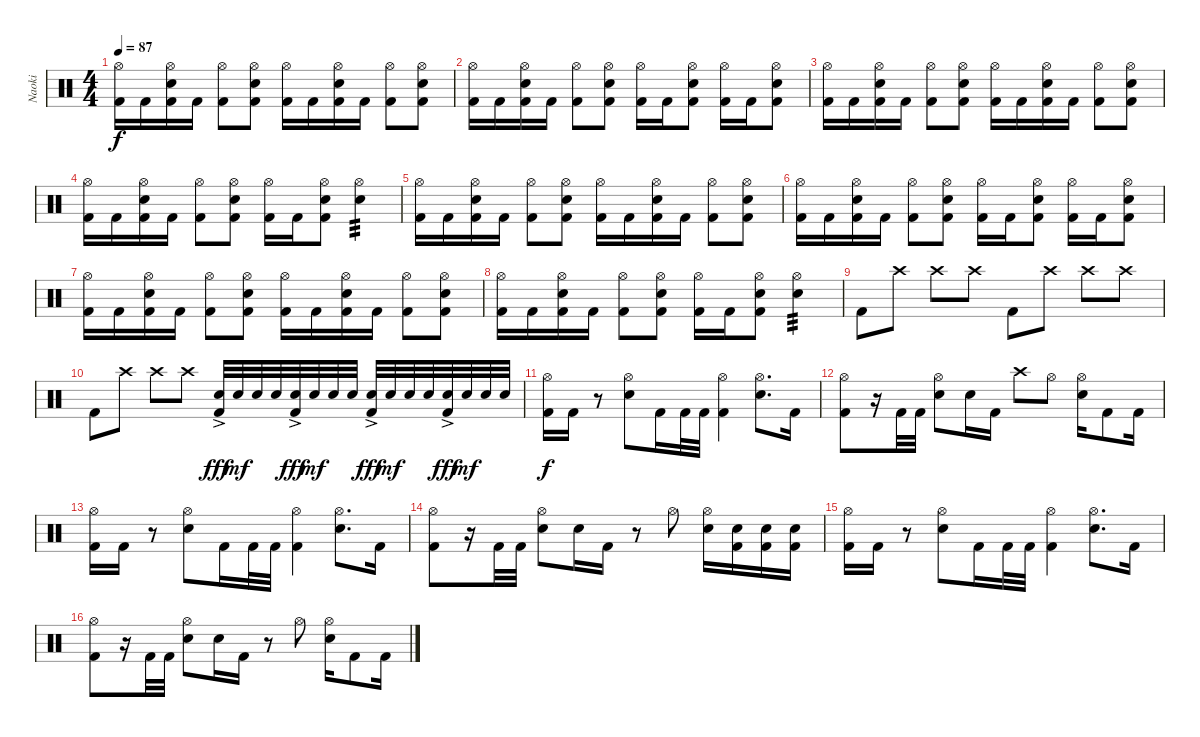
\track ("Naoki" "Naoki") {instrument percussion}
\staff {score}
\articulation defaults
\ts (4 4)
\tempo 87
\clef neutral
\ks c
("Hi-Hat (open)" "Kick (hit) 2").16{dy f} "Kick (hit) 2".16 ("Hi-Hat (open)" "Electric Snare (hit)" "Kick (hit) 2").16 "Kick (hit) 2".16 ("Hi-Hat (open)" "Kick (hit) 2").8 ("Hi-Hat (open)" "Electric Snare (hit)" "Kick (hit) 2").8 ("Hi-Hat (open)" "Kick (hit) 2").16 "Kick (hit) 2".16 ("Hi-Hat (open)" "Electric Snare (hit)" "Kick (hit) 2").16 "Kick (hit) 2".16 ("Hi-Hat (open)" "Kick (hit) 2").8 ("Hi-Hat (open)" "Electric Snare (hit)" "Kick (hit) 2").8 |
("Hi-Hat (open)" "Kick (hit) 2").16 "Kick (hit) 2".16 ("Hi-Hat (open)" "Electric Snare (hit)" "Kick (hit) 2").16 "Kick (hit) 2".16 ("Hi-Hat (open)" "Kick (hit) 2").8 ("Hi-Hat (open)" "Electric Snare (hit)" "Kick (hit) 2").8 ("Hi-Hat (open)" "Kick (hit) 2").16 "Kick (hit) 2".16 ("Hi-Hat (open)" "Electric Snare (hit)" "Kick (hit) 2").8 ("Hi-Hat (open)" "Kick (hit) 2").16 "Kick (hit) 2".16 ("Hi-Hat (open)" "Electric Snare (hit)" "Kick (hit) 2").8 |
("Hi-Hat (open)" "Kick (hit) 2").16 "Kick (hit) 2".16 ("Hi-Hat (open)" "Electric Snare (hit)" "Kick (hit) 2").16 "Kick (hit) 2".16 ("Hi-Hat (open)" "Kick (hit) 2").8 ("Hi-Hat (open)" "Electric Snare (hit)" "Kick (hit) 2").8 ("Hi-Hat (open)" "Kick (hit) 2").16 "Kick (hit) 2".16 ("Hi-Hat (open)" "Electric Snare (hit)" "Kick (hit) 2").16 "Kick (hit) 2".16 ("Hi-Hat (open)" "Kick (hit) 2").8 ("Hi-Hat (open)" "Electric Snare (hit)" "Kick (hit) 2").8 |
("Hi-Hat (open)" "Kick (hit) 2").16 "Kick (hit) 2".16 ("Hi-Hat (open)" "Electric Snare (hit)" "Kick (hit) 2").16 "Kick (hit) 2".16 ("Hi-Hat (open)" "Kick (hit) 2").8 ("Hi-Hat (open)" "Electric Snare (hit)" "Kick (hit) 2").8 ("Hi-Hat (open)" "Kick (hit) 2").16 "Kick (hit) 2".16 ("Hi-Hat (open)" "Electric Snare (hit)" "Kick (hit) 2").8 ("Hi-Hat (open)" "Electric Snare (hit)").4{tp 3} |
("Hi-Hat (open)" "Kick (hit) 2").16 "Kick (hit) 2".16 ("Hi-Hat (open)" "Electric Snare (hit)" "Kick (hit) 2").16 "Kick (hit) 2".16 ("Hi-Hat (open)" "Kick (hit) 2").8 ("Hi-Hat (open)" "Electric Snare (hit)" "Kick (hit) 2").8 ("Hi-Hat (open)" "Kick (hit) 2").16 "Kick (hit) 2".16 ("Hi-Hat (open)" "Electric Snare (hit)" "Kick (hit) 2").16 "Kick (hit) 2".16 ("Hi-Hat (open)" "Kick (hit) 2").8 ("Hi-Hat (open)" "Electric Snare (hit)" "Kick (hit) 2").8 |
("Hi-Hat (open)" "Kick (hit) 2").16 "Kick (hit) 2".16 ("Hi-Hat (open)" "Electric Snare (hit)" "Kick (hit) 2").16 "Kick (hit) 2".16 ("Hi-Hat (open)" "Kick (hit) 2").8 ("Hi-Hat (open)" "Electric Snare (hit)" "Kick (hit) 2").8 ("Hi-Hat (open)" "Kick (hit) 2").16 "Kick (hit) 2".16 ("Hi-Hat (open)" "Electric Snare (hit)" "Kick (hit) 2").8 ("Hi-Hat (open)" "Kick (hit) 2").16 "Kick (hit) 2".16 ("Hi-Hat (open)" "Electric Snare (hit)" "Kick (hit) 2").8 |
("Hi-Hat (open)" "Kick (hit) 2").16 "Kick (hit) 2".16 ("Hi-Hat (open)" "Electric Snare (hit)" "Kick (hit) 2").16 "Kick (hit) 2".16 ("Hi-Hat (open)" "Kick (hit) 2").8 ("Hi-Hat (open)" "Electric Snare (hit)" "Kick (hit) 2").8 ("Hi-Hat (open)" "Kick (hit) 2").16 "Kick (hit) 2".16 ("Hi-Hat (open)" "Electric Snare (hit)" "Kick (hit) 2").16 "Kick (hit) 2".16 ("Hi-Hat (open)" "Kick (hit) 2").8 ("Hi-Hat (open)" "Electric Snare (hit)" "Kick (hit) 2").8 |
("Hi-Hat (open)" "Kick (hit) 2").16 "Kick (hit) 2".16 ("Hi-Hat (open)" "Electric Snare (hit)" "Kick (hit) 2").16 "Kick (hit) 2".16 ("Hi-Hat (open)" "Kick (hit) 2").8 ("Hi-Hat (open)" "Electric Snare (hit)" "Kick (hit) 2").8 ("Hi-Hat (open)" "Kick (hit) 2").16 "Kick (hit) 2".16 ("Hi-Hat (open)" "Electric Snare (hit)" "Kick (hit) 2").8 ("Hi-Hat (open)" "Electric Snare (hit)").4{tp 3} |
"Kick (hit) 2".8 "Crash high (hit)".8 "Crash high (hit)".8 "Crash high (hit)".8 "Kick (hit) 2".8 "Crash high (hit)".8 "Crash high (hit)".8 "Crash high (hit)".8 |
"Kick (hit) 2".8 "Crash high (hit)".8 "Crash high (hit)".8 "Crash high (hit)".8 ("Electric Snare (hit)"{ac} "Kick (hit) 2").32{dy fff} "Electric Snare (hit)".32{dy mf} "Electric Snare (hit)".32 "Electric Snare (hit)".32 ("Electric Snare (hit)"{ac} "Kick (hit) 2").32{dy fff} "Electric Snare (hit)".32{dy mf} "Electric Snare (hit)".32 "Electric Snare (hit)".32 ("Electric Snare (hit)"{ac} "Kick (hit) 2").32{dy fff} "Electric Snare (hit)".32{dy mf} "Electric Snare (hit)".32 "Electric Snare (hit)".32 ("Electric Snare (hit)"{ac} "Kick (hit) 2").32{dy fff} "Electric Snare (hit)".32{dy mf} "Electric Snare (hit)".32 "Electric Snare (hit)".32 |
("Hi-Hat (open)" "Kick (hit) 2").16{dy f} "Kick (hit) 2".16 r.8 ("Hi-Hat (open)" "Electric Snare (hit)").8 "Kick (hit) 2".16 "Kick (hit) 2".32 "Kick (hit) 2".32 ("Hi-Hat (open)" "Kick (hit) 2").4 ("Hi-Hat (open)" "Electric Snare (hit)").8{d} "Kick (hit) 2".16 |
("Hi-Hat (open)" "Kick (hit) 2").8 r.16 "Kick (hit) 2".32 "Kick (hit) 2".32 ("Hi-Hat (open)" "Electric Snare (hit)").8 "Electric Snare (hit)".16 "Kick (hit) 2".16 "Crash high (hit)".8 "Hi-Hat (open)".8 ("Hi-Hat (open)" "Electric Snare (hit)").16 "Kick (hit) 2".8 "Kick (hit) 2".16 |
("Hi-Hat (open)" "Kick (hit) 2").16 "Kick (hit) 2".16 r.8 ("Hi-Hat (open)" "Electric Snare (hit)").8 "Kick (hit) 2".16 "Kick (hit) 2".32 "Kick (hit) 2".32 ("Hi-Hat (open)" "Kick (hit) 2").4 ("Hi-Hat (open)" "Electric Snare (hit)").8{d} "Kick (hit) 2".16 |
("Hi-Hat (open)" "Kick (hit) 2").8 r.16 "Kick (hit) 2".32 "Kick (hit) 2".32 ("Hi-Hat (open)" "Electric Snare (hit)").8 "Electric Snare (hit)".16 "Kick (hit) 2".16 r.8 "Hi-Hat (open)".8 ("Hi-Hat (open)" "Electric Snare (hit)").16 ("Electric Snare (hit)" "Kick (hit) 2").16 ("Electric Snare (hit)" "Kick (hit) 2").16 ("Electric Snare (hit)" "Kick (hit) 2").16 |
("Hi-Hat (open)" "Kick (hit) 2").16 "Kick (hit) 2".16 r.8 ("Hi-Hat (open)" "Electric Snare (hit)").8 "Kick (hit) 2".16 "Kick (hit) 2".32 "Kick (hit) 2".32 ("Hi-Hat (open)" "Kick (hit) 2").4 ("Hi-Hat (open)" "Electric Snare (hit)").8{d} "Kick (hit) 2".16 |
("Hi-Hat (open)" "Kick (hit) 2").8 r.16 "Kick (hit) 2".32 "Kick (hit) 2".32 ("Hi-Hat (open)" "Electric Snare (hit)").8 "Electric Snare (hit)".16 "Kick (hit) 2".16 r.8 "Hi-Hat (open)".8 ("Hi-Hat (open)" "Electric Snare (hit)").16 "Kick (hit) 2".8 "Kick (hit) 2".16
